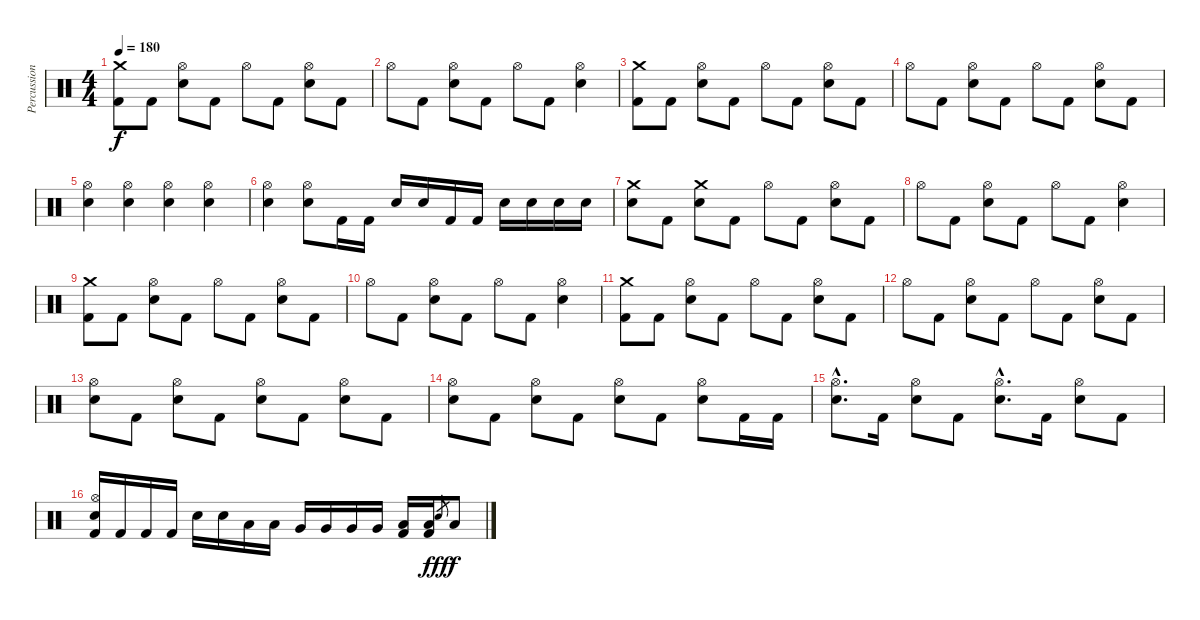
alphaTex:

\track ("Percussion" "Percussion") {instrument percussion}
\staff {score}
\articulation defaults
\ts (4 4)
\tempo 180
\clef neutral
\ks c
("Crash medium (hit)" "Kick (hit) 2").8{dy f} "Kick (hit) 2".8 ("Hi-Hat (open)" "Electric Snare (hit)").8 "Kick (hit) 2".8 "Hi-Hat (open)".8 "Kick (hit) 2".8 ("Hi-Hat (open)" "Electric Snare (hit)").8 "Kick (hit) 2".8 |
"Hi-Hat (open)".8 "Kick (hit) 2".8 ("Hi-Hat (open)" "Electric Snare (hit)").8 "Kick (hit) 2".8 "Hi-Hat (open)".8 "Kick (hit) 2".8 ("Hi-Hat (open)" "Electric Snare (hit)").4 |
("Crash medium (hit)" "Kick (hit) 2").8 "Kick (hit) 2".8 ("Hi-Hat (open)" "Electric Snare (hit)").8 "Kick (hit) 2".8 "Hi-Hat (open)".8 "Kick (hit) 2".8 ("Hi-Hat (open)" "Electric Snare (hit)").8 "Kick (hit) 2".8 |
"Hi-Hat (open)".8 "Kick (hit) 2".8 ("Hi-Hat (open)" "Electric Snare (hit)").8 "Kick (hit) 2".8 "Hi-Hat (open)".8 "Kick (hit) 2".8 ("Hi-Hat (open)" "Electric Snare (hit)").8 "Kick (hit) 2".8 |
("Hi-Hat (open)" "Electric Snare (hit)").4 ("Hi-Hat (open)" "Electric Snare (hit)").4 ("Hi-Hat (open)" "Electric Snare (hit)").4 ("Hi-Hat (open)" "Electric Snare (hit)").4 |
("Hi-Hat (open)" "Electric Snare (hit)").4 ("Hi-Hat (open)" "Electric Snare (hit)").8 "Kick (hit) 2".16 "Kick (hit) 2".16 "Electric Snare (hit)".16 "Electric Snare (hit)".16 "Kick (hit) 2".16 "Kick (hit) 2".16 "Electric Snare (hit)".16 "Electric Snare (hit)".16 "Electric Snare (hit)".16 "Electric Snare (hit)".16 |
("Crash medium (hit)" "Electric Snare (hit)").8 "Kick (hit) 2".8 ("Crash medium (hit)" "Electric Snare (hit)").8 "Kick (hit) 2".8 "Hi-Hat (open)".8 "Kick (hit) 2".8 ("Hi-Hat (open)" "Electric Snare (hit)").8 "Kick (hit) 2".8 |
"Hi-Hat (open)".8 "Kick (hit) 2".8 ("Hi-Hat (open)" "Electric Snare (hit)").8 "Kick (hit) 2".8 "Hi-Hat (open)".8 "Kick (hit) 2".8 ("Hi-Hat (open)" "Electric Snare (hit)").4 |
("Crash medium (hit)" "Kick (hit) 2").8 "Kick (hit) 2".8 ("Hi-Hat (open)" "Electric Snare (hit)").8 "Kick (hit) 2".8 "Hi-Hat (open)".8 "Kick (hit) 2".8 ("Hi-Hat (open)" "Electric Snare (hit)").8 "Kick (hit) 2".8 |
"Hi-Hat (open)".8 "Kick (hit) 2".8 ("Hi-Hat (open)" "Electric Snare (hit)").8 "Kick (hit) 2".8 "Hi-Hat (open)".8 "Kick (hit) 2".8 ("Hi-Hat (open)" "Electric Snare (hit)").4 |
("Crash medium (hit)" "Kick (hit) 2").8 "Kick (hit) 2".8 ("Hi-Hat (open)" "Electric Snare (hit)").8 "Kick (hit) 2".8 "Hi-Hat (open)".8 "Kick (hit) 2".8 ("Hi-Hat (open)" "Electric Snare (hit)").8 "Kick (hit) 2".8 |
"Hi-Hat (open)".8 "Kick (hit) 2".8 ("Hi-Hat (open)" "Electric Snare (hit)").8 "Kick (hit) 2".8 "Hi-Hat (open)".8 "Kick (hit) 2".8 ("Hi-Hat (open)" "Electric Snare (hit)").8 "Kick (hit) 2".8 |
("Hi-Hat (open)" "Electric Snare (hit)").8 "Kick (hit) 2".8 ("Hi-Hat (open)" "Electric Snare (hit)").8 "Kick (hit) 2".8 ("Hi-Hat (open)" "Electric Snare (hit)").8 "Kick (hit) 2".8 ("Hi-Hat (open)" "Electric Snare (hit)").8 "Kick (hit) 2".8 |
("Hi-Hat (open)" "Electric Snare (hit)").8 "Kick (hit) 2".8 ("Hi-Hat (open)" "Electric Snare (hit)").8 "Kick (hit) 2".8 ("Hi-Hat (open)" "Electric Snare (hit)").8 "Kick (hit) 2".8 ("Hi-Hat (open)" "Electric Snare (hit)").8 "Kick (hit) 2".16 "Kick (hit) 2".16 |
("Hi-Hat (open)"{hac} "Electric Snare (hit)"{hac}).8{d} "Kick (hit) 2".16 ("Hi-Hat (open)" "Electric Snare (hit)").8 "Kick (hit) 2".8 ("Hi-Hat (open)"{hac} "Electric Snare (hit)"{hac}).8{d} "Kick (hit) 2".16 ("Hi-Hat (open)" "Electric Snare (hit)").8 "Kick (hit) 2".8 |
("Hi-Hat (open)" "Electric Snare (hit)" "Kick (hit) 2").16 "Kick (hit) 2".16 "Kick (hit) 2".16 "Kick (hit) 2".16 "Electric Snare (hit)".16 "Electric Snare (hit)".16 "Low Tom (hit)".16 "Low Tom (hit)".16 "Very Low Tom (hit)".16 "Very Low Tom (hit)".16 "Very Low Tom (hit)".16 "Very Low Tom (hit)".16 ("Low Floor Tom (hit)" "Kick (hit) 2").16 ("Low Floor Tom (hit)" "Kick (hit) 2").16 "Electric Snare (hit)".8{gr dy fff} "Low Tom (hit)".8{dy f}
